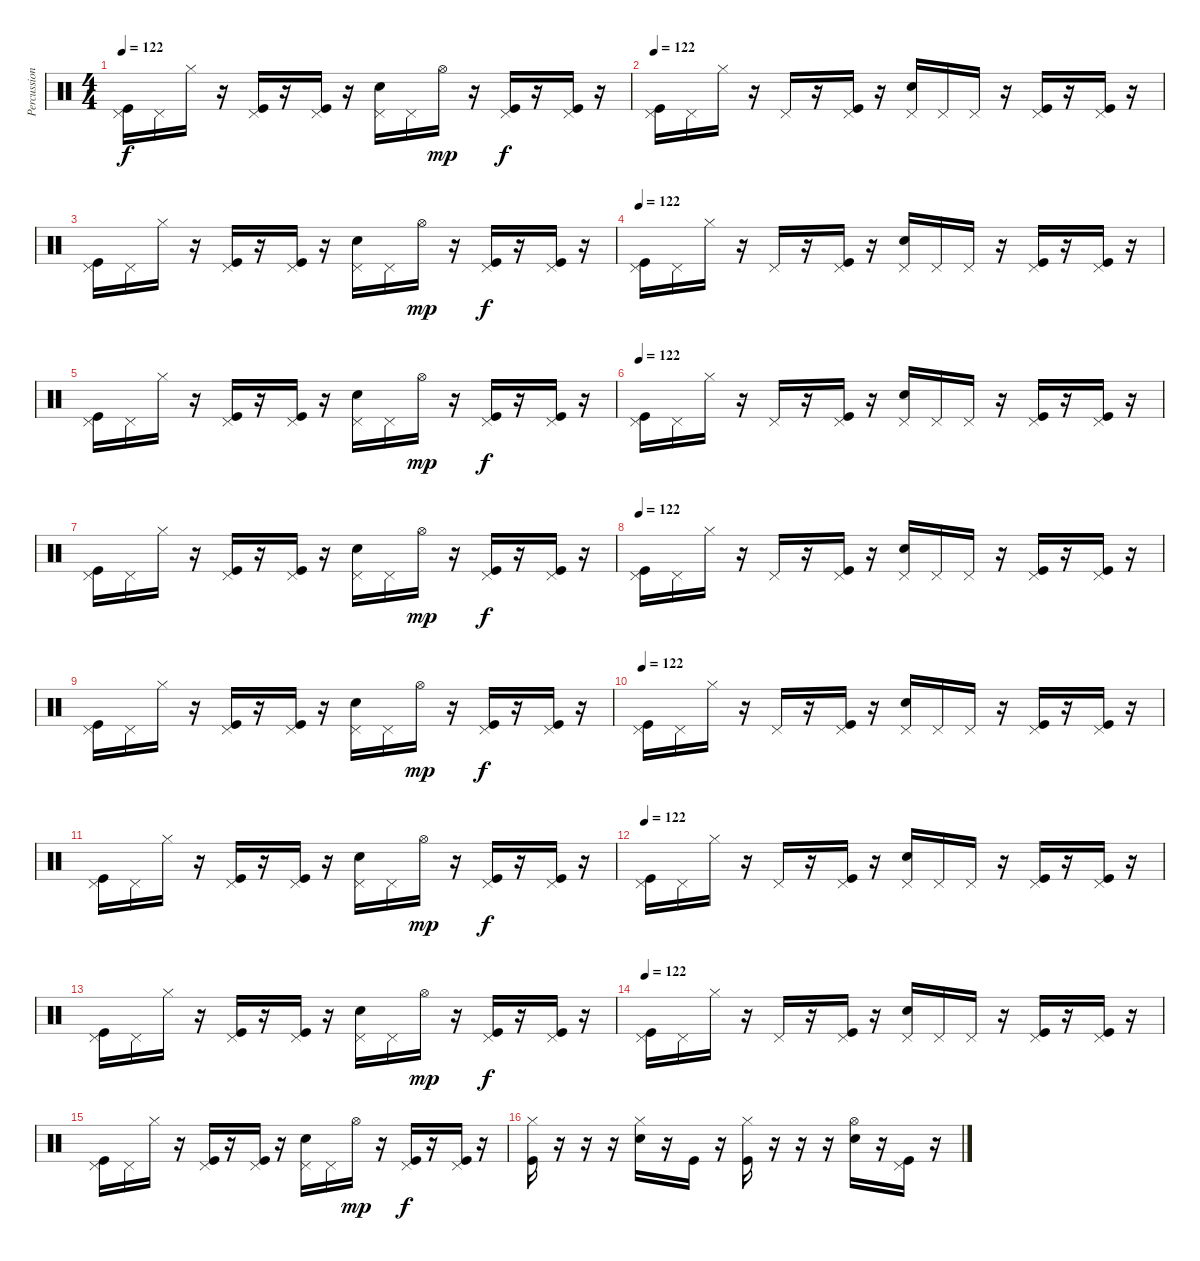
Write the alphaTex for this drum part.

\track ("Percussions" "Percussion") {instrument percussion}
\staff {score}
\articulation defaults
\ts (4 4)
\tempo 122
\clef neutral
\ks c
("Pedal Hi-Hat (hit)" "Kick (hit)").16{dy f} "Pedal Hi-Hat (hit)".16 "Hi-Hat (closed)".16 r.16 ("Pedal Hi-Hat (hit)" "Kick (hit)").16 r.16 ("Pedal Hi-Hat (hit)" "Kick (hit)").16 r.16 ("Pedal Hi-Hat (hit)" "Electric Snare (hit)").16 "Pedal Hi-Hat (hit)".16 "Hi-Hat (open)".16{dy mp} r.16 ("Pedal Hi-Hat (hit)" "Kick (hit)").16{dy f} r.16 ("Pedal Hi-Hat (hit)" "Kick (hit)").16 r.16 |
\tempo 122
("Pedal Hi-Hat (hit)" "Kick (hit)").16 "Pedal Hi-Hat (hit)".16 "Hi-Hat (closed)".16 r.16 "Pedal Hi-Hat (hit)".16 r.16 ("Pedal Hi-Hat (hit)" "Kick (hit)").16 r.16 ("Pedal Hi-Hat (hit)" "Electric Snare (hit)").16 "Pedal Hi-Hat (hit)".16 "Pedal Hi-Hat (hit)".16 r.16 ("Pedal Hi-Hat (hit)" "Kick (hit)").16 r.16 ("Pedal Hi-Hat (hit)" "Kick (hit)").16 r.16 |
("Pedal Hi-Hat (hit)" "Kick (hit)").16 "Pedal Hi-Hat (hit)".16 "Hi-Hat (closed)".16 r.16 ("Pedal Hi-Hat (hit)" "Kick (hit)").16 r.16 ("Pedal Hi-Hat (hit)" "Kick (hit)").16 r.16 ("Pedal Hi-Hat (hit)" "Electric Snare (hit)").16 "Pedal Hi-Hat (hit)".16 "Hi-Hat (open)".16{dy mp} r.16 ("Pedal Hi-Hat (hit)" "Kick (hit)").16{dy f} r.16 ("Pedal Hi-Hat (hit)" "Kick (hit)").16 r.16 |
\tempo 122
("Pedal Hi-Hat (hit)" "Kick (hit)").16 "Pedal Hi-Hat (hit)".16 "Hi-Hat (closed)".16 r.16 "Pedal Hi-Hat (hit)".16 r.16 ("Pedal Hi-Hat (hit)" "Kick (hit)").16 r.16 ("Pedal Hi-Hat (hit)" "Electric Snare (hit)").16 "Pedal Hi-Hat (hit)".16 "Pedal Hi-Hat (hit)".16 r.16 ("Pedal Hi-Hat (hit)" "Kick (hit)").16 r.16 ("Pedal Hi-Hat (hit)" "Kick (hit)").16 r.16 |
("Pedal Hi-Hat (hit)" "Kick (hit)").16 "Pedal Hi-Hat (hit)".16 "Hi-Hat (closed)".16 r.16 ("Pedal Hi-Hat (hit)" "Kick (hit)").16 r.16 ("Pedal Hi-Hat (hit)" "Kick (hit)").16 r.16 ("Pedal Hi-Hat (hit)" "Electric Snare (hit)").16 "Pedal Hi-Hat (hit)".16 "Hi-Hat (open)".16{dy mp} r.16 ("Pedal Hi-Hat (hit)" "Kick (hit)").16{dy f} r.16 ("Pedal Hi-Hat (hit)" "Kick (hit)").16 r.16 |
\tempo 122
("Pedal Hi-Hat (hit)" "Kick (hit)").16 "Pedal Hi-Hat (hit)".16 "Hi-Hat (closed)".16 r.16 "Pedal Hi-Hat (hit)".16 r.16 ("Pedal Hi-Hat (hit)" "Kick (hit)").16 r.16 ("Pedal Hi-Hat (hit)" "Electric Snare (hit)").16 "Pedal Hi-Hat (hit)".16 "Pedal Hi-Hat (hit)".16 r.16 ("Pedal Hi-Hat (hit)" "Kick (hit)").16 r.16 ("Pedal Hi-Hat (hit)" "Kick (hit)").16 r.16 |
("Pedal Hi-Hat (hit)" "Kick (hit)").16 "Pedal Hi-Hat (hit)".16 "Hi-Hat (closed)".16 r.16 ("Pedal Hi-Hat (hit)" "Kick (hit)").16 r.16 ("Pedal Hi-Hat (hit)" "Kick (hit)").16 r.16 ("Pedal Hi-Hat (hit)" "Electric Snare (hit)").16 "Pedal Hi-Hat (hit)".16 "Hi-Hat (open)".16{dy mp} r.16 ("Pedal Hi-Hat (hit)" "Kick (hit)").16{dy f} r.16 ("Pedal Hi-Hat (hit)" "Kick (hit)").16 r.16 |
\tempo 122
("Pedal Hi-Hat (hit)" "Kick (hit)").16 "Pedal Hi-Hat (hit)".16 "Hi-Hat (closed)".16 r.16 "Pedal Hi-Hat (hit)".16 r.16 ("Pedal Hi-Hat (hit)" "Kick (hit)").16 r.16 ("Pedal Hi-Hat (hit)" "Electric Snare (hit)").16 "Pedal Hi-Hat (hit)".16 "Pedal Hi-Hat (hit)".16 r.16 ("Pedal Hi-Hat (hit)" "Kick (hit)").16 r.16 ("Pedal Hi-Hat (hit)" "Kick (hit)").16 r.16 |
("Pedal Hi-Hat (hit)" "Kick (hit)").16 "Pedal Hi-Hat (hit)".16 "Hi-Hat (closed)".16 r.16 ("Pedal Hi-Hat (hit)" "Kick (hit)").16 r.16 ("Pedal Hi-Hat (hit)" "Kick (hit)").16 r.16 ("Pedal Hi-Hat (hit)" "Electric Snare (hit)").16 "Pedal Hi-Hat (hit)".16 "Hi-Hat (open)".16{dy mp} r.16 ("Pedal Hi-Hat (hit)" "Kick (hit)").16{dy f} r.16 ("Pedal Hi-Hat (hit)" "Kick (hit)").16 r.16 |
\tempo 122
("Pedal Hi-Hat (hit)" "Kick (hit)").16 "Pedal Hi-Hat (hit)".16 "Hi-Hat (closed)".16 r.16 "Pedal Hi-Hat (hit)".16 r.16 ("Pedal Hi-Hat (hit)" "Kick (hit)").16 r.16 ("Pedal Hi-Hat (hit)" "Electric Snare (hit)").16 "Pedal Hi-Hat (hit)".16 "Pedal Hi-Hat (hit)".16 r.16 ("Pedal Hi-Hat (hit)" "Kick (hit)").16 r.16 ("Pedal Hi-Hat (hit)" "Kick (hit)").16 r.16 |
("Pedal Hi-Hat (hit)" "Kick (hit)").16 "Pedal Hi-Hat (hit)".16 "Hi-Hat (closed)".16 r.16 ("Pedal Hi-Hat (hit)" "Kick (hit)").16 r.16 ("Pedal Hi-Hat (hit)" "Kick (hit)").16 r.16 ("Pedal Hi-Hat (hit)" "Electric Snare (hit)").16 "Pedal Hi-Hat (hit)".16 "Hi-Hat (open)".16{dy mp} r.16 ("Pedal Hi-Hat (hit)" "Kick (hit)").16{dy f} r.16 ("Pedal Hi-Hat (hit)" "Kick (hit)").16 r.16 |
\tempo 122
("Pedal Hi-Hat (hit)" "Kick (hit)").16 "Pedal Hi-Hat (hit)".16 "Hi-Hat (closed)".16 r.16 "Pedal Hi-Hat (hit)".16 r.16 ("Pedal Hi-Hat (hit)" "Kick (hit)").16 r.16 ("Pedal Hi-Hat (hit)" "Electric Snare (hit)").16 "Pedal Hi-Hat (hit)".16 "Pedal Hi-Hat (hit)".16 r.16 ("Pedal Hi-Hat (hit)" "Kick (hit)").16 r.16 ("Pedal Hi-Hat (hit)" "Kick (hit)").16 r.16 |
("Pedal Hi-Hat (hit)" "Kick (hit)").16 "Pedal Hi-Hat (hit)".16 "Hi-Hat (closed)".16 r.16 ("Pedal Hi-Hat (hit)" "Kick (hit)").16 r.16 ("Pedal Hi-Hat (hit)" "Kick (hit)").16 r.16 ("Pedal Hi-Hat (hit)" "Electric Snare (hit)").16 "Pedal Hi-Hat (hit)".16 "Hi-Hat (open)".16{dy mp} r.16 ("Pedal Hi-Hat (hit)" "Kick (hit)").16{dy f} r.16 ("Pedal Hi-Hat (hit)" "Kick (hit)").16 r.16 |
\tempo 122
("Pedal Hi-Hat (hit)" "Kick (hit)").16 "Pedal Hi-Hat (hit)".16 "Hi-Hat (closed)".16 r.16 "Pedal Hi-Hat (hit)".16 r.16 ("Pedal Hi-Hat (hit)" "Kick (hit)").16 r.16 ("Pedal Hi-Hat (hit)" "Electric Snare (hit)").16 "Pedal Hi-Hat (hit)".16 "Pedal Hi-Hat (hit)".16 r.16 ("Pedal Hi-Hat (hit)" "Kick (hit)").16 r.16 ("Pedal Hi-Hat (hit)" "Kick (hit)").16 r.16 |
("Pedal Hi-Hat (hit)" "Kick (hit)").16 "Pedal Hi-Hat (hit)".16 "Hi-Hat (closed)".16 r.16 ("Pedal Hi-Hat (hit)" "Kick (hit)").16 r.16 ("Pedal Hi-Hat (hit)" "Kick (hit)").16 r.16 ("Pedal Hi-Hat (hit)" "Electric Snare (hit)").16 "Pedal Hi-Hat (hit)".16 "Hi-Hat (open)".16{dy mp} r.16 ("Pedal Hi-Hat (hit)" "Kick (hit)").16{dy f} r.16 ("Pedal Hi-Hat (hit)" "Kick (hit)").16 r.16 |
("Hi-Hat (closed)" "Kick (hit)").16 r.16 r.16 r.16 ("Hi-Hat (closed)" "Electric Snare (hit)").16 r.16 "Kick (hit)".16 r.16 ("Hi-Hat (closed)" "Kick (hit)").16 r.16 r.16 r.16 ("Hi-Hat (open)" "Electric Snare (hit)").16 r.16 ("Pedal Hi-Hat (hit)" "Kick (hit)").16 r.16
